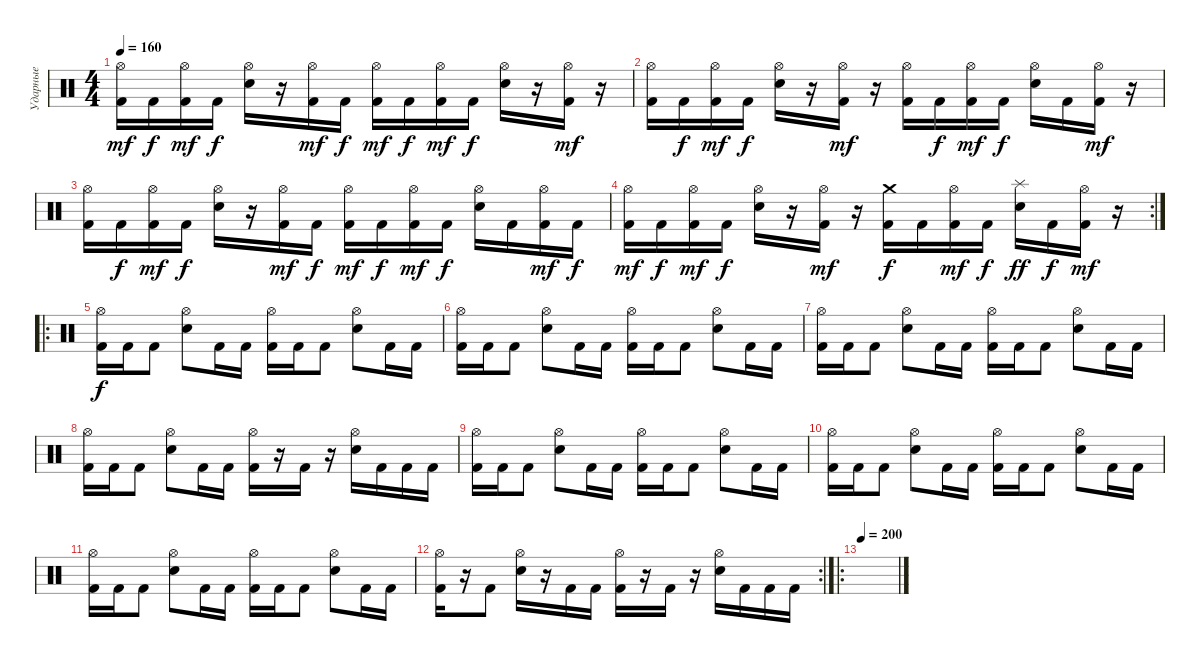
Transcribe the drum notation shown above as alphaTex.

\track ("Ударные" "Ударные") {instrument percussion}
\staff {score}
\articulation defaults
\ts (4 4)
\tempo 160
\clef neutral
\ks c
("Hi-Hat (open)" "Kick (hit) 2").16{dy mf} "Kick (hit) 2".16{dy f} ("Hi-Hat (open)" "Kick (hit) 2").16{dy mf} "Kick (hit) 2".16{dy f} ("Hi-Hat (open)" "Electric Snare (hit)").16 r.16 ("Hi-Hat (open)" "Kick (hit) 2").16{dy mf} "Kick (hit) 2".16{dy f} ("Hi-Hat (open)" "Kick (hit) 2").16{dy mf} "Kick (hit) 2".16{dy f} ("Hi-Hat (open)" "Kick (hit) 2").16{dy mf} "Kick (hit) 2".16{dy f} ("Hi-Hat (open)" "Electric Snare (hit)").16 r.16 ("Hi-Hat (open)" "Kick (hit) 2").16{dy mf} r.16 |
("Hi-Hat (open)" "Kick (hit) 2").16 "Kick (hit) 2".16{dy f} ("Hi-Hat (open)" "Kick (hit) 2").16{dy mf} "Kick (hit) 2".16{dy f} ("Hi-Hat (open)" "Electric Snare (hit)").16 r.16 ("Hi-Hat (open)" "Kick (hit) 2").16{dy mf} r.16 ("Hi-Hat (open)" "Kick (hit) 2").16 "Kick (hit) 2".16{dy f} ("Hi-Hat (open)" "Kick (hit) 2").16{dy mf} "Kick (hit) 2".16{dy f} ("Hi-Hat (open)" "Electric Snare (hit)").16 "Kick (hit) 2".16 ("Hi-Hat (open)" "Kick (hit) 2").16{dy mf} r.16 |
("Hi-Hat (open)" "Kick (hit) 2").16 "Kick (hit) 2".16{dy f} ("Hi-Hat (open)" "Kick (hit) 2").16{dy mf} "Kick (hit) 2".16{dy f} ("Hi-Hat (open)" "Electric Snare (hit)").16 r.16 ("Hi-Hat (open)" "Kick (hit) 2").16{dy mf} "Kick (hit) 2".16{dy f} ("Hi-Hat (open)" "Kick (hit) 2").16{dy mf} "Kick (hit) 2".16{dy f} ("Hi-Hat (open)" "Kick (hit) 2").16{dy mf} "Kick (hit) 2".16{dy f} ("Hi-Hat (open)" "Electric Snare (hit)").16 "Kick (hit) 2".16 ("Hi-Hat (open)" "Kick (hit) 2").16{dy mf} "Kick (hit) 2".16{dy f} |
\rc 2
("Hi-Hat (open)" "Kick (hit) 2").16{dy mf} "Kick (hit) 2".16{dy f} ("Hi-Hat (open)" "Kick (hit) 2").16{dy mf} "Kick (hit) 2".16{dy f} ("Hi-Hat (open)" "Electric Snare (hit)").16 r.16 ("Hi-Hat (open)" "Kick (hit) 2").16{dy mf} r.16 ("Crash medium (hit)" "Kick (hit) 2").16{dy f} "Kick (hit) 2".16 ("Hi-Hat (open)" "Kick (hit) 2").16{dy mf} "Kick (hit) 2".16{dy f} ("Splash (hit)" "Electric Snare (hit)").16{dy ff} "Kick (hit) 2".16{dy f} ("Hi-Hat (open)" "Kick (hit) 2").16{dy mf} r.16 |
\ro
("Hi-Hat (open)" "Kick (hit) 2").16{dy f} "Kick (hit) 2".16 "Kick (hit) 2".8 ("Hi-Hat (open)" "Electric Snare (hit)").8 "Kick (hit) 2".16 "Kick (hit) 2".16 ("Hi-Hat (open)" "Kick (hit) 2").16 "Kick (hit) 2".16 "Kick (hit) 2".8 ("Hi-Hat (open)" "Electric Snare (hit)").8 "Kick (hit) 2".16 "Kick (hit) 2".16 |
("Hi-Hat (open)" "Kick (hit) 2").16 "Kick (hit) 2".16 "Kick (hit) 2".8 ("Hi-Hat (open)" "Electric Snare (hit)").8 "Kick (hit) 2".16 "Kick (hit) 2".16 ("Hi-Hat (open)" "Kick (hit) 2").16 "Kick (hit) 2".16 "Kick (hit) 2".8 ("Hi-Hat (open)" "Electric Snare (hit)").8 "Kick (hit) 2".16 "Kick (hit) 2".16 |
("Hi-Hat (open)" "Kick (hit) 2").16 "Kick (hit) 2".16 "Kick (hit) 2".8 ("Hi-Hat (open)" "Electric Snare (hit)").8 "Kick (hit) 2".16 "Kick (hit) 2".16 ("Hi-Hat (open)" "Kick (hit) 2").16 "Kick (hit) 2".16 "Kick (hit) 2".8 ("Hi-Hat (open)" "Electric Snare (hit)").8 "Kick (hit) 2".16 "Kick (hit) 2".16 |
("Hi-Hat (open)" "Kick (hit) 2").16 "Kick (hit) 2".16 "Kick (hit) 2".8 ("Hi-Hat (open)" "Electric Snare (hit)").8 "Kick (hit) 2".16 "Kick (hit) 2".16 ("Hi-Hat (open)" "Kick (hit) 2").16 r.16 "Kick (hit) 2".16 r.16 ("Hi-Hat (open)" "Electric Snare (hit)").16 "Kick (hit) 2".16 "Kick (hit) 2".16 "Kick (hit) 2".16 |
("Hi-Hat (open)" "Kick (hit) 2").16 "Kick (hit) 2".16 "Kick (hit) 2".8 ("Hi-Hat (open)" "Electric Snare (hit)").8 "Kick (hit) 2".16 "Kick (hit) 2".16 ("Hi-Hat (open)" "Kick (hit) 2").16 "Kick (hit) 2".16 "Kick (hit) 2".8 ("Hi-Hat (open)" "Electric Snare (hit)").8 "Kick (hit) 2".16 "Kick (hit) 2".16 |
("Hi-Hat (open)" "Kick (hit) 2").16 "Kick (hit) 2".16 "Kick (hit) 2".8 ("Hi-Hat (open)" "Electric Snare (hit)").8 "Kick (hit) 2".16 "Kick (hit) 2".16 ("Hi-Hat (open)" "Kick (hit) 2").16 "Kick (hit) 2".16 "Kick (hit) 2".8 ("Hi-Hat (open)" "Electric Snare (hit)").8 "Kick (hit) 2".16 "Kick (hit) 2".16 |
("Hi-Hat (open)" "Kick (hit) 2").16 "Kick (hit) 2".16 "Kick (hit) 2".8 ("Hi-Hat (open)" "Electric Snare (hit)").8 "Kick (hit) 2".16 "Kick (hit) 2".16 ("Hi-Hat (open)" "Kick (hit) 2").16 "Kick (hit) 2".16 "Kick (hit) 2".8 ("Hi-Hat (open)" "Electric Snare (hit)").8 "Kick (hit) 2".16 "Kick (hit) 2".16 |
\rc 2
("Hi-Hat (open)" "Kick (hit) 2").16 r.16 "Kick (hit) 2".8 ("Hi-Hat (open)" "Electric Snare (hit)").16 r.16 "Kick (hit) 2".16 "Kick (hit) 2".16 ("Hi-Hat (open)" "Kick (hit) 2").16 r.16 "Kick (hit) 2".16 r.16 ("Hi-Hat (open)" "Electric Snare (hit)").16 "Kick (hit) 2".16 "Kick (hit) 2".16 "Kick (hit) 2".16 |
\ro
\tempo 200
